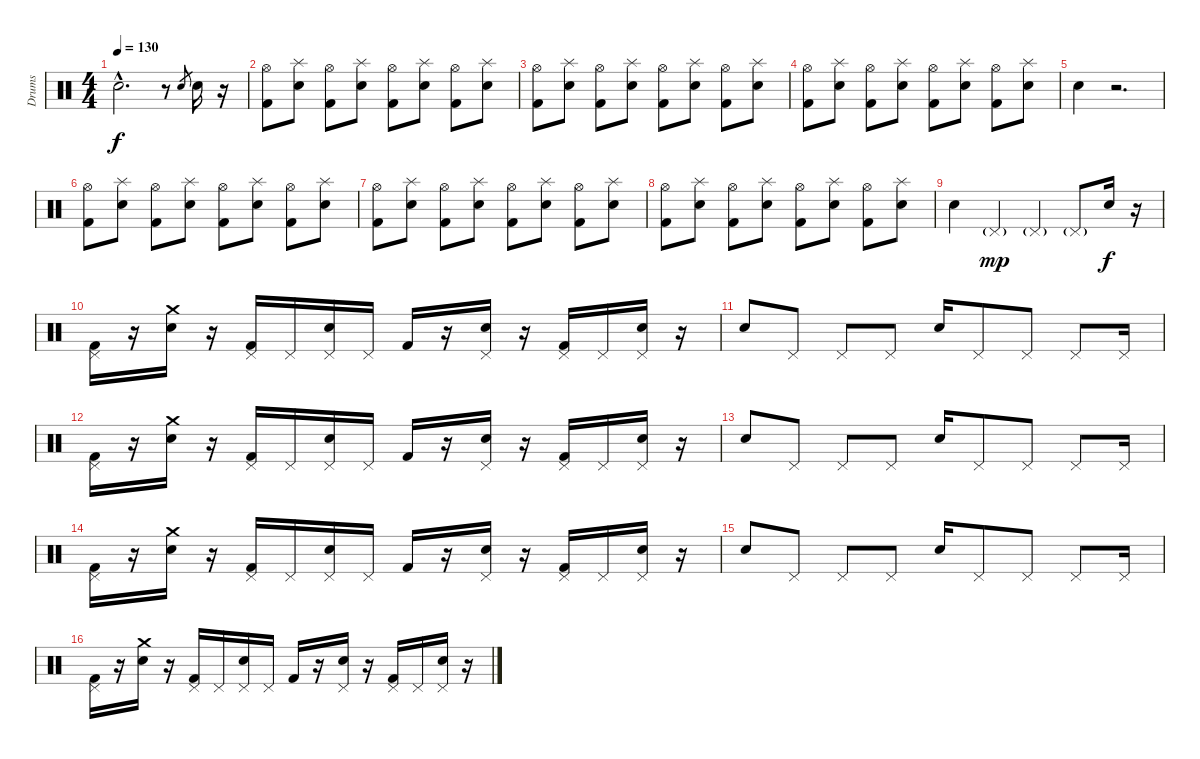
\track ("Drums" "Drums") {instrument percussion}
\staff {score}
\articulation defaults
\ts (4 4)
\tempo 130
\clef neutral
\ks c "Electric Snare (hit)"{hac}.2{d dy f}
r.8 "Electric Snare (hit)".8{gr} "Electric Snare (hit)".16 r.16 |
("Hi-Hat (open)" "Kick (hit) 2").8 ("Splash (hit)" "Electric Snare (hit)").8 ("Hi-Hat (open)" "Kick (hit) 2").8 ("Splash (hit)" "Electric Snare (hit)").8 ("Hi-Hat (open)" "Kick (hit) 2").8 ("Splash (hit)" "Electric Snare (hit)").8 ("Hi-Hat (open)" "Kick (hit) 2").8 ("Splash (hit)" "Electric Snare (hit)").8 |
("Hi-Hat (open)" "Kick (hit) 2").8 ("Splash (hit)" "Electric Snare (hit)").8 ("Hi-Hat (open)" "Kick (hit) 2").8 ("Splash (hit)" "Electric Snare (hit)").8 ("Hi-Hat (open)" "Kick (hit) 2").8 ("Splash (hit)" "Electric Snare (hit)").8 ("Hi-Hat (open)" "Kick (hit) 2").8 ("Splash (hit)" "Electric Snare (hit)").8 |
("Hi-Hat (open)" "Kick (hit) 2").8 ("Splash (hit)" "Electric Snare (hit)").8 ("Hi-Hat (open)" "Kick (hit) 2").8 ("Splash (hit)" "Electric Snare (hit)").8 ("Hi-Hat (open)" "Kick (hit) 2").8 ("Splash (hit)" "Electric Snare (hit)").8 ("Hi-Hat (open)" "Kick (hit) 2").8 ("Splash (hit)" "Electric Snare (hit)").8 |
"Electric Snare (hit)".4 r.2{d} |
("Hi-Hat (open)" "Kick (hit) 2").8 ("Splash (hit)" "Electric Snare (hit)").8 ("Hi-Hat (open)" "Kick (hit) 2").8 ("Splash (hit)" "Electric Snare (hit)").8 ("Hi-Hat (open)" "Kick (hit) 2").8 ("Splash (hit)" "Electric Snare (hit)").8 ("Hi-Hat (open)" "Kick (hit) 2").8 ("Splash (hit)" "Electric Snare (hit)").8 |
("Hi-Hat (open)" "Kick (hit) 2").8 ("Splash (hit)" "Electric Snare (hit)").8 ("Hi-Hat (open)" "Kick (hit) 2").8 ("Splash (hit)" "Electric Snare (hit)").8 ("Hi-Hat (open)" "Kick (hit) 2").8 ("Splash (hit)" "Electric Snare (hit)").8 ("Hi-Hat (open)" "Kick (hit) 2").8 ("Splash (hit)" "Electric Snare (hit)").8 |
("Hi-Hat (open)" "Kick (hit) 2").8 ("Splash (hit)" "Electric Snare (hit)").8 ("Hi-Hat (open)" "Kick (hit) 2").8 ("Splash (hit)" "Electric Snare (hit)").8 ("Hi-Hat (open)" "Kick (hit) 2").8 ("Splash (hit)" "Electric Snare (hit)").8 ("Hi-Hat (open)" "Kick (hit) 2").8 ("Splash (hit)" "Electric Snare (hit)").8 |
"Electric Snare (hit)".4 "Pedal Hi-Hat (hit)"{g}.4{dy mp} "Pedal Hi-Hat (hit)"{g}.4 "Pedal Hi-Hat (hit)"{g}.8 "Electric Snare (hit)".16{dy f} r.16 |
("Pedal Hi-Hat (hit)" "Kick (hit) 2").16 r.16 ("Crash medium (hit)" "Electric Snare (hit)").16 r.16 ("Pedal Hi-Hat (hit)" "Kick (hit) 2").16 "Pedal Hi-Hat (hit)".16 ("Pedal Hi-Hat (hit)" "Electric Snare (hit)").16 "Pedal Hi-Hat (hit)".16 "Kick (hit) 2".16 r.16 ("Pedal Hi-Hat (hit)" "Electric Snare (hit)").16 r.16 ("Pedal Hi-Hat (hit)" "Kick (hit) 2").16 "Pedal Hi-Hat (hit)".16 ("Pedal Hi-Hat (hit)" "Electric Snare (hit)").16 r.16 |
"Electric Snare (hit)".8 "Pedal Hi-Hat (hit)".8 "Pedal Hi-Hat (hit)".8 "Pedal Hi-Hat (hit)".8 "Electric Snare (hit)".16 "Pedal Hi-Hat (hit)".8 "Pedal Hi-Hat (hit)".8 "Pedal Hi-Hat (hit)".8 "Pedal Hi-Hat (hit)".16 |
("Pedal Hi-Hat (hit)" "Kick (hit) 2").16 r.16 ("Crash medium (hit)" "Electric Snare (hit)").16 r.16 ("Pedal Hi-Hat (hit)" "Kick (hit) 2").16 "Pedal Hi-Hat (hit)".16 ("Pedal Hi-Hat (hit)" "Electric Snare (hit)").16 "Pedal Hi-Hat (hit)".16 "Kick (hit) 2".16 r.16 ("Pedal Hi-Hat (hit)" "Electric Snare (hit)").16 r.16 ("Pedal Hi-Hat (hit)" "Kick (hit) 2").16 "Pedal Hi-Hat (hit)".16 ("Pedal Hi-Hat (hit)" "Electric Snare (hit)").16 r.16 |
"Electric Snare (hit)".8 "Pedal Hi-Hat (hit)".8 "Pedal Hi-Hat (hit)".8 "Pedal Hi-Hat (hit)".8 "Electric Snare (hit)".16 "Pedal Hi-Hat (hit)".8 "Pedal Hi-Hat (hit)".8 "Pedal Hi-Hat (hit)".8 "Pedal Hi-Hat (hit)".16 |
("Pedal Hi-Hat (hit)" "Kick (hit) 2").16 r.16 ("Crash medium (hit)" "Electric Snare (hit)").16 r.16 ("Pedal Hi-Hat (hit)" "Kick (hit) 2").16 "Pedal Hi-Hat (hit)".16 ("Pedal Hi-Hat (hit)" "Electric Snare (hit)").16 "Pedal Hi-Hat (hit)".16 "Kick (hit) 2".16 r.16 ("Pedal Hi-Hat (hit)" "Electric Snare (hit)").16 r.16 ("Pedal Hi-Hat (hit)" "Kick (hit) 2").16 "Pedal Hi-Hat (hit)".16 ("Pedal Hi-Hat (hit)" "Electric Snare (hit)").16 r.16 |
"Electric Snare (hit)".8 "Pedal Hi-Hat (hit)".8 "Pedal Hi-Hat (hit)".8 "Pedal Hi-Hat (hit)".8 "Electric Snare (hit)".16 "Pedal Hi-Hat (hit)".8 "Pedal Hi-Hat (hit)".8 "Pedal Hi-Hat (hit)".8 "Pedal Hi-Hat (hit)".16 |
("Pedal Hi-Hat (hit)" "Kick (hit) 2").16 r.16 ("Crash medium (hit)" "Electric Snare (hit)").16 r.16 ("Pedal Hi-Hat (hit)" "Kick (hit) 2").16 "Pedal Hi-Hat (hit)".16 ("Pedal Hi-Hat (hit)" "Electric Snare (hit)").16 "Pedal Hi-Hat (hit)".16 "Kick (hit) 2".16 r.16 ("Pedal Hi-Hat (hit)" "Electric Snare (hit)").16 r.16 ("Pedal Hi-Hat (hit)" "Kick (hit) 2").16 "Pedal Hi-Hat (hit)".16 ("Pedal Hi-Hat (hit)" "Electric Snare (hit)").16 r.16
